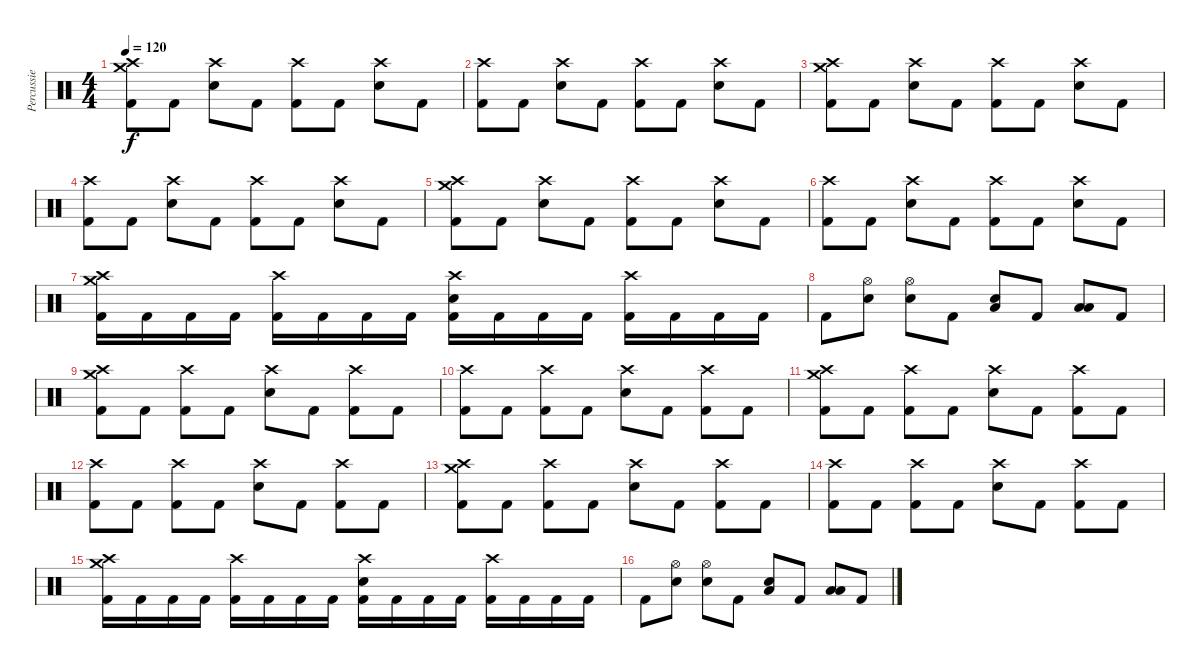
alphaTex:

\track ("Percussie" "Percussie") {instrument percussion}
\staff {score}
\articulation defaults
\ts (4 4)
\tempo 120
\clef neutral
\ks c
("Crash medium (hit)" "Crash high (hit)" "Kick (hit) 2").8{dy f} "Kick (hit) 2".8 ("Crash high (hit)" "Electric Snare (hit)").8 "Kick (hit) 2".8 ("Crash high (hit)" "Kick (hit) 2").8 "Kick (hit) 2".8 ("Crash high (hit)" "Electric Snare (hit)").8 "Kick (hit) 2".8 |
("Crash high (hit)" "Kick (hit) 2").8 "Kick (hit) 2".8 ("Crash high (hit)" "Electric Snare (hit)").8 "Kick (hit) 2".8 ("Crash high (hit)" "Kick (hit) 2").8 "Kick (hit) 2".8 ("Crash high (hit)" "Electric Snare (hit)").8 "Kick (hit) 2".8 |
("Crash medium (hit)" "Crash high (hit)" "Kick (hit) 2").8 "Kick (hit) 2".8 ("Crash high (hit)" "Electric Snare (hit)").8 "Kick (hit) 2".8 ("Crash high (hit)" "Kick (hit) 2").8 "Kick (hit) 2".8 ("Crash high (hit)" "Electric Snare (hit)").8 "Kick (hit) 2".8 |
("Crash high (hit)" "Kick (hit) 2").8 "Kick (hit) 2".8 ("Crash high (hit)" "Electric Snare (hit)").8 "Kick (hit) 2".8 ("Crash high (hit)" "Kick (hit) 2").8 "Kick (hit) 2".8 ("Crash high (hit)" "Electric Snare (hit)").8 "Kick (hit) 2".8 |
("Crash medium (hit)" "Crash high (hit)" "Kick (hit) 2").8 "Kick (hit) 2".8 ("Crash high (hit)" "Electric Snare (hit)").8 "Kick (hit) 2".8 ("Crash high (hit)" "Kick (hit) 2").8 "Kick (hit) 2".8 ("Crash high (hit)" "Electric Snare (hit)").8 "Kick (hit) 2".8 |
("Crash high (hit)" "Kick (hit) 2").8 "Kick (hit) 2".8 ("Crash high (hit)" "Electric Snare (hit)").8 "Kick (hit) 2".8 ("Crash high (hit)" "Kick (hit) 2").8 "Kick (hit) 2".8 ("Crash high (hit)" "Electric Snare (hit)").8 "Kick (hit) 2".8 |
("Crash medium (hit)" "Crash high (hit)" "Kick (hit) 2").16 "Kick (hit) 2".16 "Kick (hit) 2".16 "Kick (hit) 2".16 ("Crash high (hit)" "Kick (hit) 2").16 "Kick (hit) 2".16 "Kick (hit) 2".16 "Kick (hit) 2".16 ("Crash high (hit)" "Electric Snare (hit)" "Kick (hit) 2").16 "Kick (hit) 2".16 "Kick (hit) 2".16 "Kick (hit) 2".16 ("Crash high (hit)" "Kick (hit) 2").16 "Kick (hit) 2".16 "Kick (hit) 2".16 "Kick (hit) 2".16 |
"Kick (hit) 2".8 ("Hi-Hat (open)" "Electric Snare (hit)").8 ("Hi-Hat (open)" "Electric Snare (hit)").8 "Kick (hit) 2".8 ("Low Floor Tom (hit)" "Electric Snare (hit)").8 "Kick (hit) 2".8 ("Low Tom (hit)" "Low Floor Tom (hit)").8 "Kick (hit) 2".8 |
("Crash medium (hit)" "Crash high (hit)" "Kick (hit) 2").8 "Kick (hit) 2".8 ("Crash high (hit)" "Kick (hit) 2").8 "Kick (hit) 2".8 ("Crash high (hit)" "Electric Snare (hit)").8 "Kick (hit) 2".8 ("Crash high (hit)" "Kick (hit) 2").8 "Kick (hit) 2".8 |
("Crash high (hit)" "Kick (hit) 2").8 "Kick (hit) 2".8 ("Crash high (hit)" "Kick (hit) 2").8 "Kick (hit) 2".8 ("Crash high (hit)" "Electric Snare (hit)").8 "Kick (hit) 2".8 ("Crash high (hit)" "Kick (hit) 2").8 "Kick (hit) 2".8 |
("Crash medium (hit)" "Crash high (hit)" "Kick (hit) 2").8 "Kick (hit) 2".8 ("Crash high (hit)" "Kick (hit) 2").8 "Kick (hit) 2".8 ("Crash high (hit)" "Electric Snare (hit)").8 "Kick (hit) 2".8 ("Crash high (hit)" "Kick (hit) 2").8 "Kick (hit) 2".8 |
("Crash high (hit)" "Kick (hit) 2").8 "Kick (hit) 2".8 ("Crash high (hit)" "Kick (hit) 2").8 "Kick (hit) 2".8 ("Crash high (hit)" "Electric Snare (hit)").8 "Kick (hit) 2".8 ("Crash high (hit)" "Kick (hit) 2").8 "Kick (hit) 2".8 |
("Crash medium (hit)" "Crash high (hit)" "Kick (hit) 2").8 "Kick (hit) 2".8 ("Crash high (hit)" "Kick (hit) 2").8 "Kick (hit) 2".8 ("Crash high (hit)" "Electric Snare (hit)").8 "Kick (hit) 2".8 ("Crash high (hit)" "Kick (hit) 2").8 "Kick (hit) 2".8 |
("Crash high (hit)" "Kick (hit) 2").8 "Kick (hit) 2".8 ("Crash high (hit)" "Kick (hit) 2").8 "Kick (hit) 2".8 ("Crash high (hit)" "Electric Snare (hit)").8 "Kick (hit) 2".8 ("Crash high (hit)" "Kick (hit) 2").8 "Kick (hit) 2".8 |
("Crash medium (hit)" "Crash high (hit)" "Kick (hit) 2").16 "Kick (hit) 2".16 "Kick (hit) 2".16 "Kick (hit) 2".16 ("Crash high (hit)" "Kick (hit) 2").16 "Kick (hit) 2".16 "Kick (hit) 2".16 "Kick (hit) 2".16 ("Crash high (hit)" "Electric Snare (hit)" "Kick (hit) 2").16 "Kick (hit) 2".16 "Kick (hit) 2".16 "Kick (hit) 2".16 ("Crash high (hit)" "Kick (hit) 2").16 "Kick (hit) 2".16 "Kick (hit) 2".16 "Kick (hit) 2".16 |
"Kick (hit) 2".8 ("Hi-Hat (open)" "Electric Snare (hit)").8 ("Hi-Hat (open)" "Electric Snare (hit)").8 "Kick (hit) 2".8 ("Low Floor Tom (hit)" "Electric Snare (hit)").8 "Kick (hit) 2".8 ("Low Tom (hit)" "Low Floor Tom (hit)").8 "Kick (hit) 2".8
